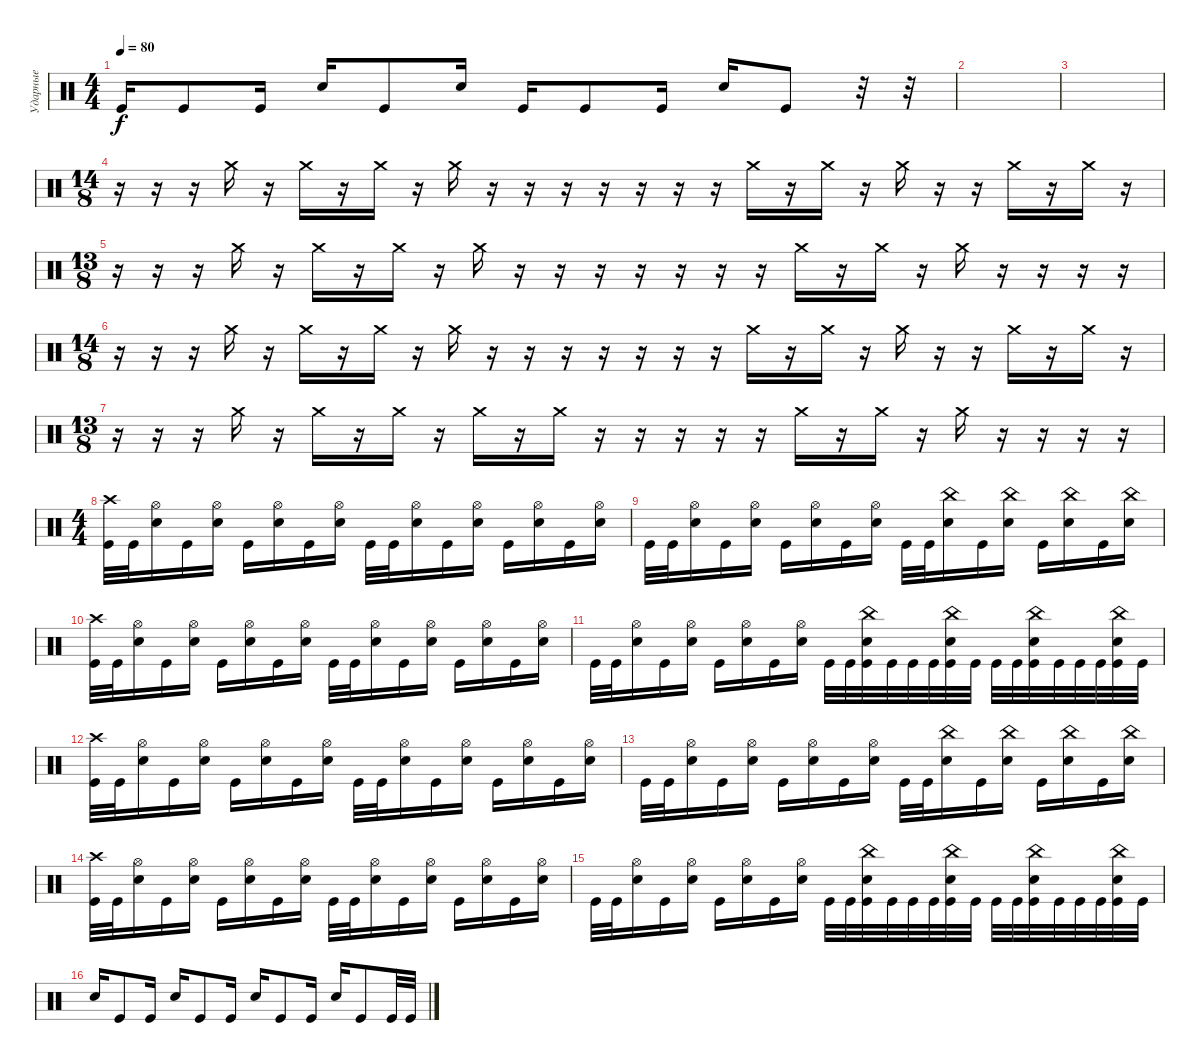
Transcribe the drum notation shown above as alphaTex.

\track ("Ударные" "Ударные") {instrument percussion}
\staff {score}
\articulation defaults
\ts (4 4)
\tempo 80
\clef neutral
\ks c "Kick (hit)".16{dy f} "Kick (hit)".8 "Kick (hit)".16 "Snare (hit) 2".16 "Kick (hit)".8 "Snare (hit) 2".16 "Kick (hit)".16 "Kick (hit)".8 "Kick (hit)".16 "Snare (hit) 2".16 "Kick (hit)".8
r.32 r.32 |
|
|
\ts (14 8)
r.16 r.16 r.16 "Crash medium (hit)".16 r.16 "Crash medium (hit)".16 r.16 "Crash medium (hit)".16 r.16 "Crash medium (hit)".16 r.16 r.16 r.16 r.16 r.16 r.16 r.16 "Crash medium (hit)".16 r.16 "Crash medium (hit)".16 r.16 "Crash medium (hit)".16 r.16 r.16 "Crash medium (hit)".16 r.16 "Crash medium (hit)".16 r.16 |
\ts (13 8)
r.16 r.16 r.16 "Crash medium (hit)".16 r.16 "Crash medium (hit)".16 r.16 "Crash medium (hit)".16 r.16 "Crash medium (hit)".16 r.16 r.16 r.16 r.16 r.16 r.16 r.16 "Crash medium (hit)".16 r.16 "Crash medium (hit)".16 r.16 "Crash medium (hit)".16 r.16 r.16 r.16 r.16 |
\ts (14 8)
r.16 r.16 r.16 "Crash medium (hit)".16 r.16 "Crash medium (hit)".16 r.16 "Crash medium (hit)".16 r.16 "Crash medium (hit)".16 r.16 r.16 r.16 r.16 r.16 r.16 r.16 "Crash medium (hit)".16 r.16 "Crash medium (hit)".16 r.16 "Crash medium (hit)".16 r.16 r.16 "Crash medium (hit)".16 r.16 "Crash medium (hit)".16 r.16 |
\ts (13 8)
r.16 r.16 r.16 "Crash medium (hit)".16 r.16 "Crash medium (hit)".16 r.16 "Crash medium (hit)".16 r.16 "Crash medium (hit)".16 r.16 "Crash medium (hit)".16 r.16 r.16 r.16 r.16 r.16 "Crash medium (hit)".16 r.16 "Crash medium (hit)".16 r.16 "Crash medium (hit)".16 r.16 r.16 r.16 r.16 |
\ts (4 4)
("Kick (hit)" "Crash high (hit)").32 "Kick (hit)".32 ("Snare (hit) 2" "Hi-Hat (open)").16 "Kick (hit)".16 ("Snare (hit) 2" "Hi-Hat (open)").16 "Kick (hit)".16 ("Snare (hit) 2" "Hi-Hat (open)").16 "Kick (hit)".16 ("Snare (hit) 2" "Hi-Hat (open)").16 "Kick (hit)".32 "Kick (hit)".32 ("Snare (hit) 2" "Hi-Hat (open)").16 "Kick (hit)".16 ("Snare (hit) 2" "Hi-Hat (open)").16 "Kick (hit)".16 ("Snare (hit) 2" "Hi-Hat (open)").16 "Kick (hit)".16 ("Snare (hit) 2" "Hi-Hat (open)").16 |
"Kick (hit)".32 "Kick (hit)".32 ("Snare (hit) 2" "Hi-Hat (open)").16 "Kick (hit)".16 ("Snare (hit) 2" "Hi-Hat (open)").16 "Kick (hit)".16 ("Snare (hit) 2" "Hi-Hat (open)").16 "Kick (hit)".16 ("Snare (hit) 2" "Hi-Hat (open)").16 "Kick (hit)".32 "Kick (hit)".32 ("Snare (hit) 2" "China (hit)").16 "Kick (hit)".16 ("Snare (hit) 2" "China (hit)").16 "Kick (hit)".16 ("Snare (hit) 2" "China (hit)").16 "Kick (hit)".16 ("Snare (hit) 2" "China (hit)").16 |
("Kick (hit)" "Crash high (hit)").32 "Kick (hit)".32 ("Snare (hit) 2" "Hi-Hat (open)").16 "Kick (hit)".16 ("Snare (hit) 2" "Hi-Hat (open)").16 "Kick (hit)".16 ("Snare (hit) 2" "Hi-Hat (open)").16 "Kick (hit)".16 ("Snare (hit) 2" "Hi-Hat (open)").16 "Kick (hit)".32 "Kick (hit)".32 ("Snare (hit) 2" "Hi-Hat (open)").16 "Kick (hit)".16 ("Snare (hit) 2" "Hi-Hat (open)").16 "Kick (hit)".16 ("Snare (hit) 2" "Hi-Hat (open)").16 "Kick (hit)".16 ("Snare (hit) 2" "Hi-Hat (open)").16 |
"Kick (hit)".32 "Kick (hit)".32 ("Snare (hit) 2" "Hi-Hat (open)").16 "Kick (hit)".16 ("Snare (hit) 2" "Hi-Hat (open)").16 "Kick (hit)".16 ("Snare (hit) 2" "Hi-Hat (open)").16 "Kick (hit)".16 ("Snare (hit) 2" "Hi-Hat (open)").16 "Kick (hit)".32 "Kick (hit)".32 ("Kick (hit)" "Snare (hit) 2" "China (hit)").32 "Kick (hit)".32 "Kick (hit)".32 "Kick (hit)".32 ("Kick (hit)" "Snare (hit) 2" "China (hit)").32 "Kick (hit)".32 "Kick (hit)".32 "Kick (hit)".32 ("Kick (hit)" "Snare (hit) 2" "China (hit)").32 "Kick (hit)".32 "Kick (hit)".32 "Kick (hit)".32 ("Kick (hit)" "Snare (hit) 2" "China (hit)").32 "Kick (hit)".32 |
("Kick (hit)" "Crash high (hit)").32 "Kick (hit)".32 ("Snare (hit) 2" "Hi-Hat (open)").16 "Kick (hit)".16 ("Snare (hit) 2" "Hi-Hat (open)").16 "Kick (hit)".16 ("Snare (hit) 2" "Hi-Hat (open)").16 "Kick (hit)".16 ("Snare (hit) 2" "Hi-Hat (open)").16 "Kick (hit)".32 "Kick (hit)".32 ("Snare (hit) 2" "Hi-Hat (open)").16 "Kick (hit)".16 ("Snare (hit) 2" "Hi-Hat (open)").16 "Kick (hit)".16 ("Snare (hit) 2" "Hi-Hat (open)").16 "Kick (hit)".16 ("Snare (hit) 2" "Hi-Hat (open)").16 |
"Kick (hit)".32 "Kick (hit)".32 ("Snare (hit) 2" "Hi-Hat (open)").16 "Kick (hit)".16 ("Snare (hit) 2" "Hi-Hat (open)").16 "Kick (hit)".16 ("Snare (hit) 2" "Hi-Hat (open)").16 "Kick (hit)".16 ("Snare (hit) 2" "Hi-Hat (open)").16 "Kick (hit)".32 "Kick (hit)".32 ("Snare (hit) 2" "China (hit)").16 "Kick (hit)".16 ("Snare (hit) 2" "China (hit)").16 "Kick (hit)".16 ("Snare (hit) 2" "China (hit)").16 "Kick (hit)".16 ("Snare (hit) 2" "China (hit)").16 |
("Kick (hit)" "Crash high (hit)").32 "Kick (hit)".32 ("Snare (hit) 2" "Hi-Hat (open)").16 "Kick (hit)".16 ("Snare (hit) 2" "Hi-Hat (open)").16 "Kick (hit)".16 ("Snare (hit) 2" "Hi-Hat (open)").16 "Kick (hit)".16 ("Snare (hit) 2" "Hi-Hat (open)").16 "Kick (hit)".32 "Kick (hit)".32 ("Snare (hit) 2" "Hi-Hat (open)").16 "Kick (hit)".16 ("Snare (hit) 2" "Hi-Hat (open)").16 "Kick (hit)".16 ("Snare (hit) 2" "Hi-Hat (open)").16 "Kick (hit)".16 ("Snare (hit) 2" "Hi-Hat (open)").16 |
"Kick (hit)".32 "Kick (hit)".32 ("Snare (hit) 2" "Hi-Hat (open)").16 "Kick (hit)".16 ("Snare (hit) 2" "Hi-Hat (open)").16 "Kick (hit)".16 ("Snare (hit) 2" "Hi-Hat (open)").16 "Kick (hit)".16 ("Snare (hit) 2" "Hi-Hat (open)").16 "Kick (hit)".32 "Kick (hit)".32 ("Kick (hit)" "Snare (hit) 2" "China (hit)").32 "Kick (hit)".32 "Kick (hit)".32 "Kick (hit)".32 ("Kick (hit)" "Snare (hit) 2" "China (hit)").32 "Kick (hit)".32 "Kick (hit)".32 "Kick (hit)".32 ("Kick (hit)" "Snare (hit) 2" "China (hit)").32 "Kick (hit)".32 "Kick (hit)".32 "Kick (hit)".32 ("Kick (hit)" "Snare (hit) 2" "China (hit)").32 "Kick (hit)".32 |
"Snare (hit) 2".16 "Kick (hit)".8 "Kick (hit)".16 "Snare (hit) 2".16 "Kick (hit)".8 "Kick (hit)".16 "Snare (hit) 2".16 "Kick (hit)".8 "Kick (hit)".16 "Snare (hit) 2".16 "Kick (hit)".8 "Kick (hit)".32 "Kick (hit)".32
